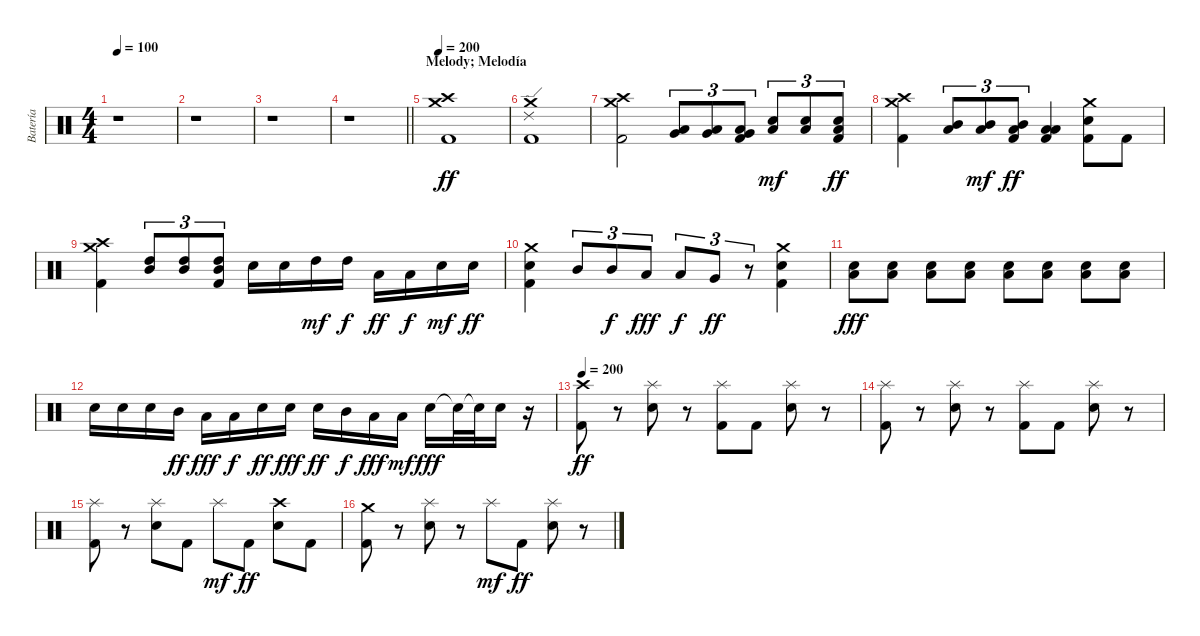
\track ("Batería" "Batería") {instrument percussion}
\staff {score}
\articulation defaults
\ts (4 4)
\tempo 100
\clef neutral
\ks c
r.1{dy ff} |
r.1 |
r.1 |
\barLineRight lightlight
r.1 |
\section ("" "Melody; Melodía")
\tempo 200
("Crash medium (hit)" "Crash high (hit)" "Kick (hit) 2").1 |
("Ride (edge) 2" "Crash medium (hit)" "Kick (hit) 2").1 |
("Crash medium (hit)" "Crash high (hit)" "Kick (hit) 2").2 ("Low Tom (hit)" "Very Low Tom (hit)").8{tu (3 2)} ("Low Tom (hit)" "Very Low Tom (hit)").8{tu (3 2)} ("Low Tom (hit)" "Very Low Tom (hit)" "Kick (hit) 2").8{tu (3 2)} ("Low Tom (hit)" "Electric Snare (hit)").8{tu (3 2) dy mf} ("Low Tom (hit)" "Electric Snare (hit)").8{tu (3 2)} ("Low Tom (hit)" "Electric Snare (hit)" "Kick (hit) 2").8{tu (3 2) dy ff} |
("Crash medium (hit)" "Crash high (hit)" "Kick (hit) 2").4 ("Low Tom (hit)" "Mid Tom (hit)").8{tu (3 2)} ("Low Tom (hit)" "Mid Tom (hit)").8{tu (3 2) dy mf} ("Low Tom (hit)" "Mid Tom (hit)" "Kick (hit) 2").8{tu (3 2) dy ff} ("Low Floor Tom (hit)" "Low Tom (hit)" "Kick (hit) 2").4 ("Crash medium (hit)" "Electric Snare (hit)" "Kick (hit) 2").8 "Kick (hit) 2".8 |
("Crash medium (hit)" "Crash high (hit)" "Kick (hit) 2").4 ("High Tom (hit)" "Mid Tom (hit)").8{tu (3 2)} ("High Tom (hit)" "Mid Tom (hit)").8{tu (3 2)} ("High Tom (hit)" "Mid Tom (hit)" "Kick (hit) 2").8{tu (3 2)} "Electric Snare (hit)".16 "Electric Snare (hit)".16 "High Tom (hit)".16{dy mf} "High Tom (hit)".16{dy f} "Low Tom (hit)".16{dy ff} "Low Tom (hit)".16{dy f} "Electric Snare (hit)".16{dy mf} "Electric Snare (hit)".16{dy ff} |
("Crash medium (hit)" "Electric Snare (hit)" "Kick (hit) 2").4 "Mid Tom (hit)".8{tu (3 2)} "Mid Tom (hit)".8{tu (3 2) dy f} "Low Tom (hit)".8{tu (3 2) dy fff} "Low Tom (hit)".8{tu (3 2) dy f} "Very Low Tom (hit)".8{tu (3 2) dy ff} r.8{tu (3 2)} ("Crash medium (hit)" "Electric Snare (hit)" "Kick (hit) 2").4 |
("Electric Snare (hit)" "Low Tom (hit)").8{dy fff} ("Electric Snare (hit)" "Low Tom (hit)").8 ("Electric Snare (hit)" "Low Tom (hit)").8 ("Electric Snare (hit)" "Low Tom (hit)").8 ("Electric Snare (hit)" "Low Tom (hit)").8 ("Electric Snare (hit)" "Low Tom (hit)").8 ("Electric Snare (hit)" "Low Tom (hit)").8 ("Electric Snare (hit)" "Low Tom (hit)").8 |
"Electric Snare (hit)".16 "Electric Snare (hit)".16 "Electric Snare (hit)".16 "Mid Tom (hit)".16{dy ff} "Low Tom (hit)".16{dy fff} "Low Floor Tom (hit)".16{dy f} "Electric Snare (hit)".16{dy ff} "Electric Snare (hit)".16{dy fff} "Electric Snare (hit)".16{dy ff} "Mid Tom (hit)".16{dy f} "Low Tom (hit)".16{dy fff} "Low Floor Tom (hit)".16{dy mf} "Electric Snare (hit)".16{dy fff} "Electric Snare (hit)"{t}.32 "Electric Snare (hit)"{t}.32 "Electric Snare (hit)".16 r.16 |
\tempo 200
("Crash high (hit)" "Kick (hit) 2").8{dy ff} r.8 ("Splash (hit)" "Electric Snare (hit)").8 r.8 ("Splash (hit)" "Kick (hit) 2").8 "Kick (hit) 2".8 ("Splash (hit)" "Electric Snare (hit)").8 r.8 |
("Splash (hit)" "Kick (hit) 2").8 r.8 ("Splash (hit)" "Electric Snare (hit)").8 r.8 ("Splash (hit)" "Kick (hit) 2").8 "Kick (hit) 2".8 ("Splash (hit)" "Electric Snare (hit)").8 r.8 |
("Splash (hit)" "Kick (hit) 2").8 r.8 ("Splash (hit)" "Electric Snare (hit)").8 "Kick (hit) 2".8 "Splash (hit)".8{dy mf} "Kick (hit) 2".8{dy ff} ("Crash high (hit)" "Electric Snare (hit)").8 "Kick (hit) 2".8 |
("Crash medium (hit)" "Kick (hit) 2").8 r.8 ("Splash (hit)" "Electric Snare (hit)").8 r.8 "Splash (hit)".8{dy mf} "Kick (hit) 2".8{dy ff} ("Splash (hit)" "Electric Snare (hit)").8 r.8
